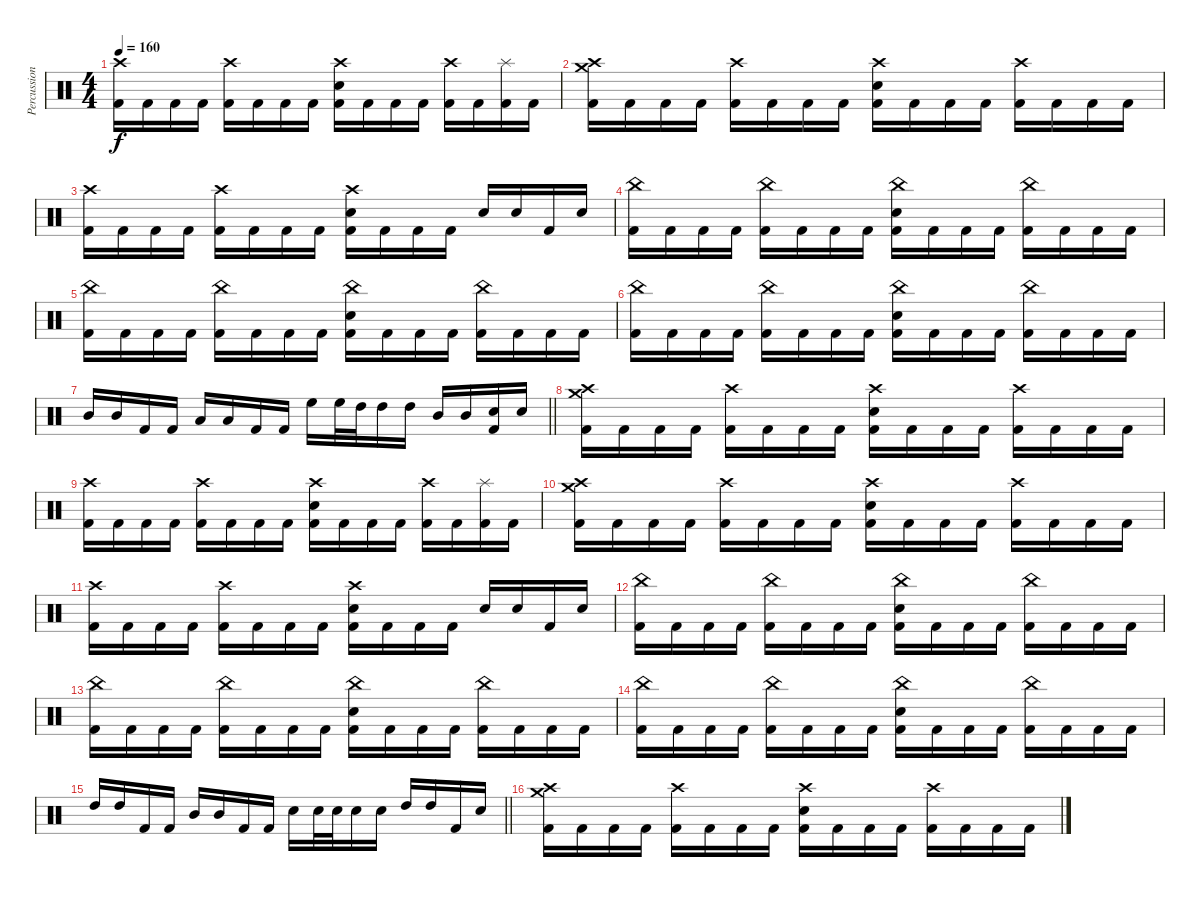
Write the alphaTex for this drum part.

\track ("Percussion" "Percussion") {instrument percussion}
\staff {score}
\articulation defaults
\ts (4 4)
\tempo 160
\clef neutral
\ks c
("Crash high (hit)" "Kick (hit) 2").16{dy f} "Kick (hit) 2".16 "Kick (hit) 2".16 "Kick (hit) 2".16 ("Crash high (hit)" "Kick (hit) 2").16 "Kick (hit) 2".16 "Kick (hit) 2".16 "Kick (hit) 2".16 ("Crash high (hit)" "Electric Snare (hit)" "Kick (hit) 2").16 "Kick (hit) 2".16 "Kick (hit) 2".16 "Kick (hit) 2".16 ("Crash high (hit)" "Kick (hit) 2").16 "Kick (hit) 2".16 ("Splash (hit)" "Kick (hit) 2").16 "Kick (hit) 2".16 |
("Crash medium (hit)" "Crash high (hit)" "Kick (hit) 2").16 "Kick (hit) 2".16 "Kick (hit) 2".16 "Kick (hit) 2".16 ("Crash high (hit)" "Kick (hit) 2").16 "Kick (hit) 2".16 "Kick (hit) 2".16 "Kick (hit) 2".16 ("Crash high (hit)" "Electric Snare (hit)" "Kick (hit) 2").16 "Kick (hit) 2".16 "Kick (hit) 2".16 "Kick (hit) 2".16 ("Crash high (hit)" "Kick (hit) 2").16 "Kick (hit) 2".16 "Kick (hit) 2".16 "Kick (hit) 2".16 |
("Crash high (hit)" "Kick (hit) 2").16 "Kick (hit) 2".16 "Kick (hit) 2".16 "Kick (hit) 2".16 ("Crash high (hit)" "Kick (hit) 2").16 "Kick (hit) 2".16 "Kick (hit) 2".16 "Kick (hit) 2".16 ("Crash high (hit)" "Electric Snare (hit)" "Kick (hit) 2").16 "Kick (hit) 2".16 "Kick (hit) 2".16 "Kick (hit) 2".16 "Electric Snare (hit)".16 "Electric Snare (hit)".16 "Kick (hit) 2".16 "Electric Snare (hit)".16 |
("China (hit)" "Kick (hit) 2").16 "Kick (hit) 2".16 "Kick (hit) 2".16 "Kick (hit) 2".16 ("China (hit)" "Kick (hit) 2").16 "Kick (hit) 2".16 "Kick (hit) 2".16 "Kick (hit) 2".16 ("China (hit)" "Electric Snare (hit)" "Kick (hit) 2").16 "Kick (hit) 2".16 "Kick (hit) 2".16 "Kick (hit) 2".16 ("China (hit)" "Kick (hit) 2").16 "Kick (hit) 2".16 "Kick (hit) 2".16 "Kick (hit) 2".16 |
("China (hit)" "Kick (hit) 2").16 "Kick (hit) 2".16 "Kick (hit) 2".16 "Kick (hit) 2".16 ("China (hit)" "Kick (hit) 2").16 "Kick (hit) 2".16 "Kick (hit) 2".16 "Kick (hit) 2".16 ("China (hit)" "Electric Snare (hit)" "Kick (hit) 2").16 "Kick (hit) 2".16 "Kick (hit) 2".16 "Kick (hit) 2".16 ("China (hit)" "Kick (hit) 2").16 "Kick (hit) 2".16 "Kick (hit) 2".16 "Kick (hit) 2".16 |
("China (hit)" "Kick (hit) 2").16 "Kick (hit) 2".16 "Kick (hit) 2".16 "Kick (hit) 2".16 ("China (hit)" "Kick (hit) 2").16 "Kick (hit) 2".16 "Kick (hit) 2".16 "Kick (hit) 2".16 ("China (hit)" "Electric Snare (hit)" "Kick (hit) 2").16 "Kick (hit) 2".16 "Kick (hit) 2".16 "Kick (hit) 2".16 ("China (hit)" "Kick (hit) 2").16 "Kick (hit) 2".16 "Kick (hit) 2".16 "Kick (hit) 2".16 |
\barLineRight lightlight "Mid Tom (hit)".16 "Mid Tom (hit)".16 "Kick (hit) 2".16 "Kick (hit) 2".16 "Low Tom (hit)".16 "Low Tom (hit)".16 "Kick (hit) 2".16 "Kick (hit) 2".16 "High Floor Tom (hit)".16 "High Floor Tom (hit)".32 "High Tom (hit)".32 "High Tom (hit)".16 "High Tom (hit)".16 "Mid Tom (hit)".16 "Mid Tom (hit)".16
("Electric Snare (hit)" "Kick (hit) 2").16 "Electric Snare (hit)".16 |
("Crash medium (hit)" "Crash high (hit)" "Kick (hit) 2").16 "Kick (hit) 2".16 "Kick (hit) 2".16 "Kick (hit) 2".16 ("Crash high (hit)" "Kick (hit) 2").16 "Kick (hit) 2".16 "Kick (hit) 2".16 "Kick (hit) 2".16 ("Crash high (hit)" "Electric Snare (hit)" "Kick (hit) 2").16 "Kick (hit) 2".16 "Kick (hit) 2".16 "Kick (hit) 2".16 ("Crash high (hit)" "Kick (hit) 2").16 "Kick (hit) 2".16 "Kick (hit) 2".16 "Kick (hit) 2".16 |
("Crash high (hit)" "Kick (hit) 2").16 "Kick (hit) 2".16 "Kick (hit) 2".16 "Kick (hit) 2".16 ("Crash high (hit)" "Kick (hit) 2").16 "Kick (hit) 2".16 "Kick (hit) 2".16 "Kick (hit) 2".16 ("Crash high (hit)" "Electric Snare (hit)" "Kick (hit) 2").16 "Kick (hit) 2".16 "Kick (hit) 2".16 "Kick (hit) 2".16 ("Crash high (hit)" "Kick (hit) 2").16 "Kick (hit) 2".16 ("Splash (hit)" "Kick (hit) 2").16 "Kick (hit) 2".16 |
("Crash medium (hit)" "Crash high (hit)" "Kick (hit) 2").16 "Kick (hit) 2".16 "Kick (hit) 2".16 "Kick (hit) 2".16 ("Crash high (hit)" "Kick (hit) 2").16 "Kick (hit) 2".16 "Kick (hit) 2".16 "Kick (hit) 2".16 ("Crash high (hit)" "Electric Snare (hit)" "Kick (hit) 2").16 "Kick (hit) 2".16 "Kick (hit) 2".16 "Kick (hit) 2".16 ("Crash high (hit)" "Kick (hit) 2").16 "Kick (hit) 2".16 "Kick (hit) 2".16 "Kick (hit) 2".16 |
("Crash high (hit)" "Kick (hit) 2").16 "Kick (hit) 2".16 "Kick (hit) 2".16 "Kick (hit) 2".16 ("Crash high (hit)" "Kick (hit) 2").16 "Kick (hit) 2".16 "Kick (hit) 2".16 "Kick (hit) 2".16 ("Crash high (hit)" "Electric Snare (hit)" "Kick (hit) 2").16 "Kick (hit) 2".16 "Kick (hit) 2".16 "Kick (hit) 2".16 "Electric Snare (hit)".16 "Electric Snare (hit)".16 "Kick (hit) 2".16 "Electric Snare (hit)".16 |
("China (hit)" "Kick (hit) 2").16 "Kick (hit) 2".16 "Kick (hit) 2".16 "Kick (hit) 2".16 ("China (hit)" "Kick (hit) 2").16 "Kick (hit) 2".16 "Kick (hit) 2".16 "Kick (hit) 2".16 ("China (hit)" "Electric Snare (hit)" "Kick (hit) 2").16 "Kick (hit) 2".16 "Kick (hit) 2".16 "Kick (hit) 2".16 ("China (hit)" "Kick (hit) 2").16 "Kick (hit) 2".16 "Kick (hit) 2".16 "Kick (hit) 2".16 |
("China (hit)" "Kick (hit) 2").16 "Kick (hit) 2".16 "Kick (hit) 2".16 "Kick (hit) 2".16 ("China (hit)" "Kick (hit) 2").16 "Kick (hit) 2".16 "Kick (hit) 2".16 "Kick (hit) 2".16 ("China (hit)" "Electric Snare (hit)" "Kick (hit) 2").16 "Kick (hit) 2".16 "Kick (hit) 2".16 "Kick (hit) 2".16 ("China (hit)" "Kick (hit) 2").16 "Kick (hit) 2".16 "Kick (hit) 2".16 "Kick (hit) 2".16 |
("China (hit)" "Kick (hit) 2").16 "Kick (hit) 2".16 "Kick (hit) 2".16 "Kick (hit) 2".16 ("China (hit)" "Kick (hit) 2").16 "Kick (hit) 2".16 "Kick (hit) 2".16 "Kick (hit) 2".16 ("China (hit)" "Electric Snare (hit)" "Kick (hit) 2").16 "Kick (hit) 2".16 "Kick (hit) 2".16 "Kick (hit) 2".16 ("China (hit)" "Kick (hit) 2").16 "Kick (hit) 2".16 "Kick (hit) 2".16 "Kick (hit) 2".16 |
\barLineRight lightlight "High Tom (hit)".16 "High Tom (hit)".16 "Kick (hit) 2".16 "Kick (hit) 2".16 "Mid Tom (hit)".16 "Mid Tom (hit)".16 "Kick (hit) 2".16 "Kick (hit) 2".16 "Electric Snare (hit)".16 "Electric Snare (hit)".32 "Electric Snare (hit)".32 "Electric Snare (hit)".16 "Electric Snare (hit)".16 "High Tom (hit)".16 "High Tom (hit)".16 "Kick (hit) 2".16 "Electric Snare (hit)".16
|
("Crash medium (hit)" "Crash high (hit)" "Kick (hit) 2").16 "Kick (hit) 2".16 "Kick (hit) 2".16 "Kick (hit) 2".16 ("Crash high (hit)" "Kick (hit) 2").16 "Kick (hit) 2".16 "Kick (hit) 2".16 "Kick (hit) 2".16 ("Crash high (hit)" "Electric Snare (hit)" "Kick (hit) 2").16 "Kick (hit) 2".16 "Kick (hit) 2".16 "Kick (hit) 2".16 ("Crash high (hit)" "Kick (hit) 2").16 "Kick (hit) 2".16 "Kick (hit) 2".16 "Kick (hit) 2".16
